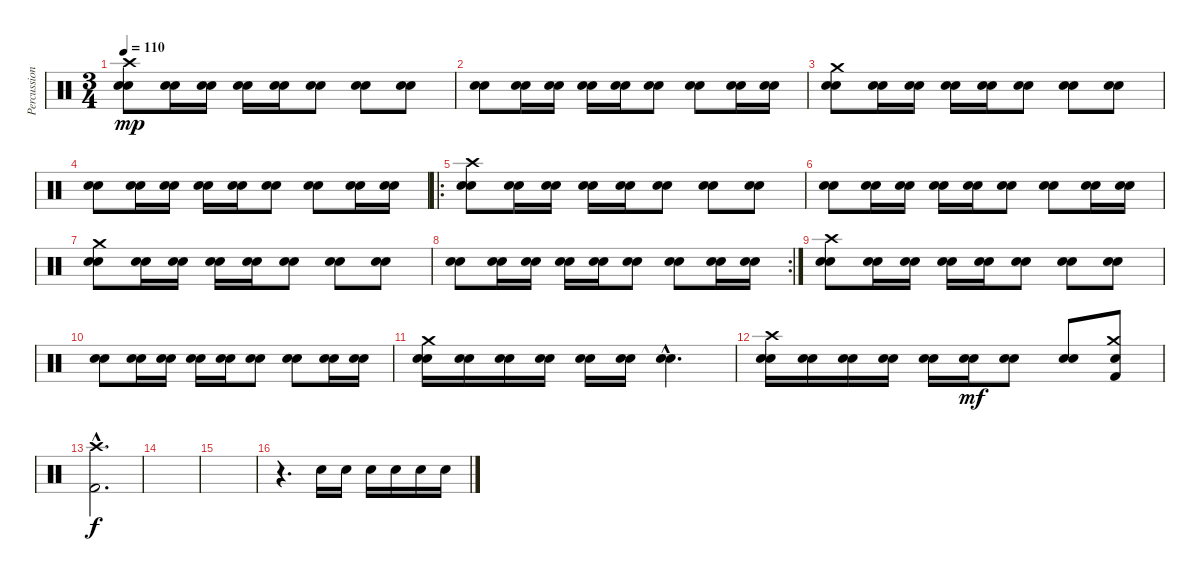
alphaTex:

\track ("Percussion" "Percussion") {instrument percussion}
\staff {score}
\articulation defaults
\ts (3 4)
\tempo 110
\clef neutral
\ks c
("Crash high (hit)" "Snare (hit) 2" "Electric Snare (hit)").8{dy mp} ("Snare (hit) 2" "Electric Snare (hit)").16 ("Snare (hit) 2" "Electric Snare (hit)").16 ("Snare (hit) 2" "Electric Snare (hit)").16 ("Snare (hit) 2" "Electric Snare (hit)").16 ("Snare (hit) 2" "Electric Snare (hit)").8 ("Snare (hit) 2" "Electric Snare (hit)").8 ("Snare (hit) 2" "Electric Snare (hit)").8 |
("Snare (hit) 2" "Electric Snare (hit)").8 ("Snare (hit) 2" "Electric Snare (hit)").16 ("Snare (hit) 2" "Electric Snare (hit)").16 ("Snare (hit) 2" "Electric Snare (hit)").16 ("Snare (hit) 2" "Electric Snare (hit)").16 ("Snare (hit) 2" "Electric Snare (hit)").8 ("Snare (hit) 2" "Electric Snare (hit)").8 ("Snare (hit) 2" "Electric Snare (hit)").16 ("Snare (hit) 2" "Electric Snare (hit)").16 |
("Crash medium (hit)" "Snare (hit) 2" "Electric Snare (hit)").8 ("Snare (hit) 2" "Electric Snare (hit)").16 ("Snare (hit) 2" "Electric Snare (hit)").16 ("Snare (hit) 2" "Electric Snare (hit)").16 ("Snare (hit) 2" "Electric Snare (hit)").16 ("Snare (hit) 2" "Electric Snare (hit)").8 ("Snare (hit) 2" "Electric Snare (hit)").8 ("Snare (hit) 2" "Electric Snare (hit)").8 |
("Snare (hit) 2" "Electric Snare (hit)").8 ("Snare (hit) 2" "Electric Snare (hit)").16 ("Snare (hit) 2" "Electric Snare (hit)").16 ("Snare (hit) 2" "Electric Snare (hit)").16 ("Snare (hit) 2" "Electric Snare (hit)").16 ("Snare (hit) 2" "Electric Snare (hit)").8 ("Snare (hit) 2" "Electric Snare (hit)").8 ("Snare (hit) 2" "Electric Snare (hit)").16 ("Snare (hit) 2" "Electric Snare (hit)").16 |
\ro
("Crash high (hit)" "Snare (hit) 2" "Electric Snare (hit)").8 ("Snare (hit) 2" "Electric Snare (hit)").16 ("Snare (hit) 2" "Electric Snare (hit)").16 ("Snare (hit) 2" "Electric Snare (hit)").16 ("Snare (hit) 2" "Electric Snare (hit)").16 ("Snare (hit) 2" "Electric Snare (hit)").8 ("Snare (hit) 2" "Electric Snare (hit)").8 ("Snare (hit) 2" "Electric Snare (hit)").8 |
("Snare (hit) 2" "Electric Snare (hit)").8 ("Snare (hit) 2" "Electric Snare (hit)").16 ("Snare (hit) 2" "Electric Snare (hit)").16 ("Snare (hit) 2" "Electric Snare (hit)").16 ("Snare (hit) 2" "Electric Snare (hit)").16 ("Snare (hit) 2" "Electric Snare (hit)").8 ("Snare (hit) 2" "Electric Snare (hit)").8 ("Snare (hit) 2" "Electric Snare (hit)").16 ("Snare (hit) 2" "Electric Snare (hit)").16 |
("Crash medium (hit)" "Snare (hit) 2" "Electric Snare (hit)").8 ("Snare (hit) 2" "Electric Snare (hit)").16 ("Snare (hit) 2" "Electric Snare (hit)").16 ("Snare (hit) 2" "Electric Snare (hit)").16 ("Snare (hit) 2" "Electric Snare (hit)").16 ("Snare (hit) 2" "Electric Snare (hit)").8 ("Snare (hit) 2" "Electric Snare (hit)").8 ("Snare (hit) 2" "Electric Snare (hit)").8 |
\rc 2
("Snare (hit) 2" "Electric Snare (hit)").8 ("Snare (hit) 2" "Electric Snare (hit)").16 ("Snare (hit) 2" "Electric Snare (hit)").16 ("Snare (hit) 2" "Electric Snare (hit)").16 ("Snare (hit) 2" "Electric Snare (hit)").16 ("Snare (hit) 2" "Electric Snare (hit)").8 ("Snare (hit) 2" "Electric Snare (hit)").8 ("Snare (hit) 2" "Electric Snare (hit)").16 ("Snare (hit) 2" "Electric Snare (hit)").16 |
("Crash high (hit)" "Snare (hit) 2" "Electric Snare (hit)").8 ("Snare (hit) 2" "Electric Snare (hit)").16 ("Snare (hit) 2" "Electric Snare (hit)").16 ("Snare (hit) 2" "Electric Snare (hit)").16 ("Snare (hit) 2" "Electric Snare (hit)").16 ("Snare (hit) 2" "Electric Snare (hit)").8 ("Snare (hit) 2" "Electric Snare (hit)").8 ("Snare (hit) 2" "Electric Snare (hit)").8 |
("Snare (hit) 2" "Electric Snare (hit)").8 ("Snare (hit) 2" "Electric Snare (hit)").16 ("Snare (hit) 2" "Electric Snare (hit)").16 ("Snare (hit) 2" "Electric Snare (hit)").16 ("Snare (hit) 2" "Electric Snare (hit)").16 ("Snare (hit) 2" "Electric Snare (hit)").8 ("Snare (hit) 2" "Electric Snare (hit)").8 ("Snare (hit) 2" "Electric Snare (hit)").16 ("Snare (hit) 2" "Electric Snare (hit)").16 |
("Crash medium (hit)" "Snare (hit) 2" "Electric Snare (hit)").16 ("Snare (hit) 2" "Electric Snare (hit)").16 ("Snare (hit) 2" "Electric Snare (hit)").16 ("Snare (hit) 2" "Electric Snare (hit)").16 ("Snare (hit) 2" "Electric Snare (hit)").16 ("Snare (hit) 2" "Electric Snare (hit)").16 ("Snare (hit) 2"{hac} "Electric Snare (hit)"{hac}).4{d} |
("Crash high (hit)" "Snare (hit) 2" "Electric Snare (hit)").16 ("Snare (hit) 2" "Electric Snare (hit)").16 ("Snare (hit) 2" "Electric Snare (hit)").16 ("Snare (hit) 2" "Electric Snare (hit)").16 ("Snare (hit) 2" "Electric Snare (hit)").16 ("Snare (hit) 2" "Electric Snare (hit)").16{dy mf} ("Snare (hit) 2" "Electric Snare (hit)").8 ("Snare (hit) 2" "Electric Snare (hit)").8 ("Crash medium (hit)" "Snare (hit) 2" "Kick (hit) 2").8 |
("Crash high (hit)"{hac} "Kick (hit) 2"{hac}).2{d dy f} |
|
|
r.4{d} "Snare (hit) 2".16 "Snare (hit) 2".16 "Snare (hit) 2".16 "Snare (hit) 2".16 "Snare (hit) 2".16 "Snare (hit) 2".16
